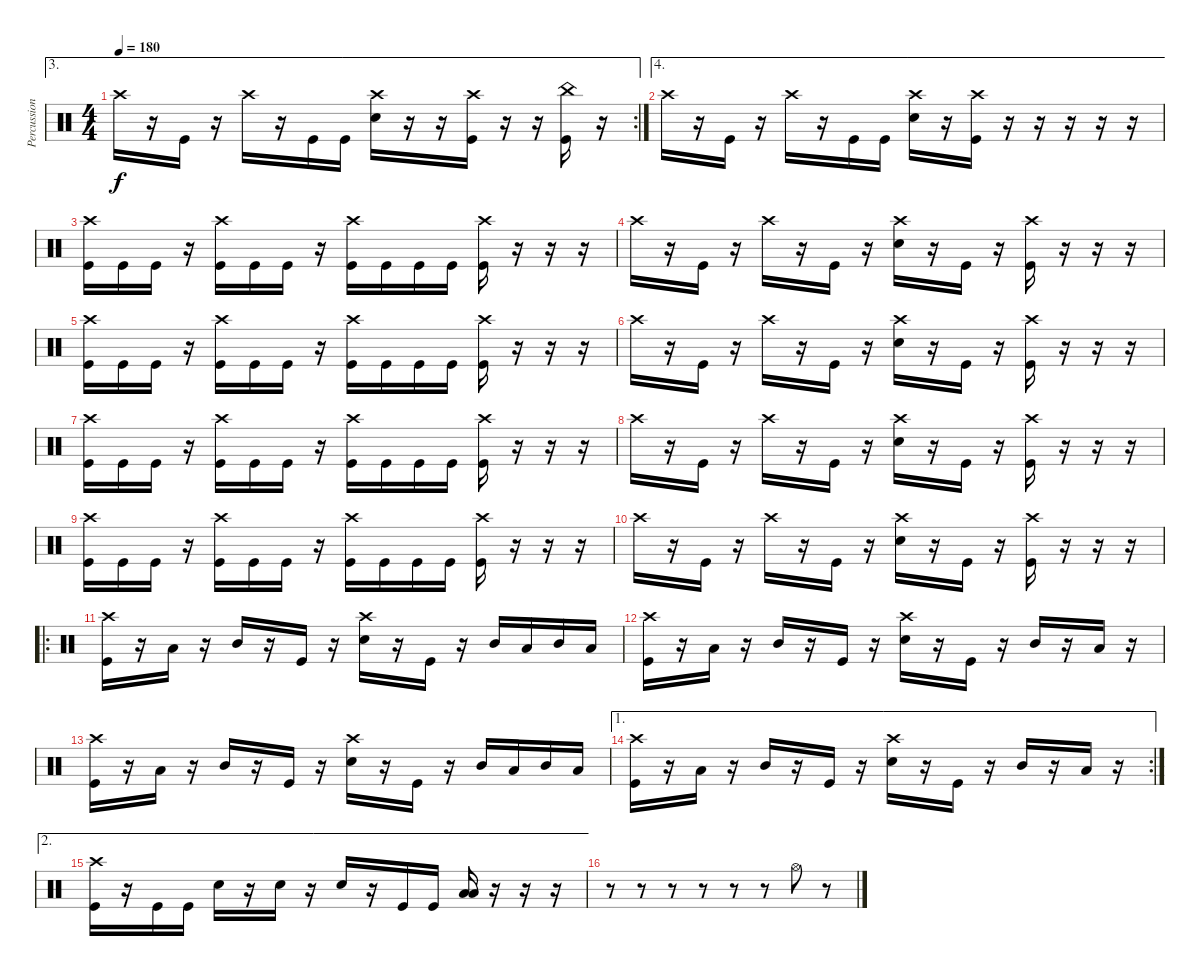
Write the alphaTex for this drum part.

\track ("Percussion" "Percussion") {instrument percussion}
\staff {score}
\articulation defaults
\ae 3
\rc 2
\ts (4 4)
\tempo 180
\clef neutral
\ks c "Crash high (hit)".16{dy f}
r.16 "Kick (hit)".16 r.16 "Crash high (hit)".16 r.16 "Kick (hit)".16 "Kick (hit)".16 ("Crash high (hit)" "Electric Snare (hit)").16 r.16 r.16 ("Crash high (hit)" "Kick (hit)").16 r.16 r.16 ("China (hit)" "Kick (hit)").16 r.16 |
\ae 4 "Crash high (hit)".16
r.16 "Kick (hit)".16 r.16 "Crash high (hit)".16 r.16 "Kick (hit)".16 "Kick (hit)".16 ("Crash high (hit)" "Electric Snare (hit)").16 r.16 ("Crash high (hit)" "Kick (hit)").16 r.16 r.16 r.16 r.16 r.16 |
("Crash high (hit)" "Kick (hit)").16 "Kick (hit)".16 "Kick (hit)".16 r.16 ("Crash high (hit)" "Kick (hit)").16 "Kick (hit)".16 "Kick (hit)".16 r.16 ("Crash high (hit)" "Kick (hit)").16 "Kick (hit)".16 "Kick (hit)".16 "Kick (hit)".16 ("Crash high (hit)" "Kick (hit)").16 r.16 r.16 r.16 |
"Crash high (hit)".16 r.16 "Kick (hit)".16 r.16 "Crash high (hit)".16 r.16 "Kick (hit)".16 r.16 ("Crash high (hit)" "Electric Snare (hit)").16 r.16 "Kick (hit)".16 r.16 ("Crash high (hit)" "Kick (hit)").16 r.16 r.16 r.16 |
("Crash high (hit)" "Kick (hit)").16 "Kick (hit)".16 "Kick (hit)".16 r.16 ("Crash high (hit)" "Kick (hit)").16 "Kick (hit)".16 "Kick (hit)".16 r.16 ("Crash high (hit)" "Kick (hit)").16 "Kick (hit)".16 "Kick (hit)".16 "Kick (hit)".16 ("Crash high (hit)" "Kick (hit)").16 r.16 r.16 r.16 |
"Crash high (hit)".16 r.16 "Kick (hit)".16 r.16 "Crash high (hit)".16 r.16 "Kick (hit)".16 r.16 ("Crash high (hit)" "Electric Snare (hit)").16 r.16 "Kick (hit)".16 r.16 ("Crash high (hit)" "Kick (hit)").16 r.16 r.16 r.16 |
("Crash high (hit)" "Kick (hit)").16 "Kick (hit)".16 "Kick (hit)".16 r.16 ("Crash high (hit)" "Kick (hit)").16 "Kick (hit)".16 "Kick (hit)".16 r.16 ("Crash high (hit)" "Kick (hit)").16 "Kick (hit)".16 "Kick (hit)".16 "Kick (hit)".16 ("Crash high (hit)" "Kick (hit)").16 r.16 r.16 r.16 |
"Crash high (hit)".16 r.16 "Kick (hit)".16 r.16 "Crash high (hit)".16 r.16 "Kick (hit)".16 r.16 ("Crash high (hit)" "Electric Snare (hit)").16 r.16 "Kick (hit)".16 r.16 ("Crash high (hit)" "Kick (hit)").16 r.16 r.16 r.16 |
("Crash high (hit)" "Kick (hit)").16 "Kick (hit)".16 "Kick (hit)".16 r.16 ("Crash high (hit)" "Kick (hit)").16 "Kick (hit)".16 "Kick (hit)".16 r.16 ("Crash high (hit)" "Kick (hit)").16 "Kick (hit)".16 "Kick (hit)".16 "Kick (hit)".16 ("Crash high (hit)" "Kick (hit)").16 r.16 r.16 r.16 |
"Crash high (hit)".16 r.16 "Kick (hit)".16 r.16 "Crash high (hit)".16 r.16 "Kick (hit)".16 r.16 ("Crash high (hit)" "Electric Snare (hit)").16 r.16 "Kick (hit)".16 r.16 ("Crash high (hit)" "Kick (hit)").16 r.16 r.16 r.16 |
\ro
("Crash high (hit)" "Kick (hit)").16 r.16 "Low Tom (hit)".16 r.16 "Mid Tom (hit)".16 r.16 "Kick (hit)".16 r.16 ("Crash high (hit)" "Electric Snare (hit)").16 r.16 "Kick (hit)".16 r.16 "Mid Tom (hit)".16 "Low Tom (hit)".16 "Mid Tom (hit)".16 "Low Tom (hit)".16 |
("Crash high (hit)" "Kick (hit)").16 r.16 "Low Tom (hit)".16 r.16 "Mid Tom (hit)".16 r.16 "Kick (hit)".16 r.16 ("Crash high (hit)" "Electric Snare (hit)").16 r.16 "Kick (hit)".16 r.16 "Mid Tom (hit)".16 r.16 "Low Tom (hit)".16 r.16 |
("Crash high (hit)" "Kick (hit)").16 r.16 "Low Tom (hit)".16 r.16 "Mid Tom (hit)".16 r.16 "Kick (hit)".16 r.16 ("Crash high (hit)" "Electric Snare (hit)").16 r.16 "Kick (hit)".16 r.16 "Mid Tom (hit)".16 "Low Tom (hit)".16 "Mid Tom (hit)".16 "Low Tom (hit)".16 |
\ae 1
\rc 2
("Crash high (hit)" "Kick (hit)").16 r.16 "Low Tom (hit)".16 r.16 "Mid Tom (hit)".16 r.16 "Kick (hit)".16 r.16 ("Crash high (hit)" "Electric Snare (hit)").16 r.16 "Kick (hit)".16 r.16 "Mid Tom (hit)".16 r.16 "Low Tom (hit)".16 r.16 |
\ae 2
("Crash high (hit)" "Kick (hit)").16 r.16 "Kick (hit)".16 "Kick (hit)".16 "Electric Snare (hit)".16 r.16 "Electric Snare (hit)".16 r.16 "Electric Snare (hit)".16 r.16 "Kick (hit)".16 "Kick (hit)".16 ("Low Tom (hit)" "Low Floor Tom (hit)").16 r.16 r.16 r.16 |
r.8 r.8 r.8 r.8 r.8 r.8 "Hi-Hat (open)".8 r.8
